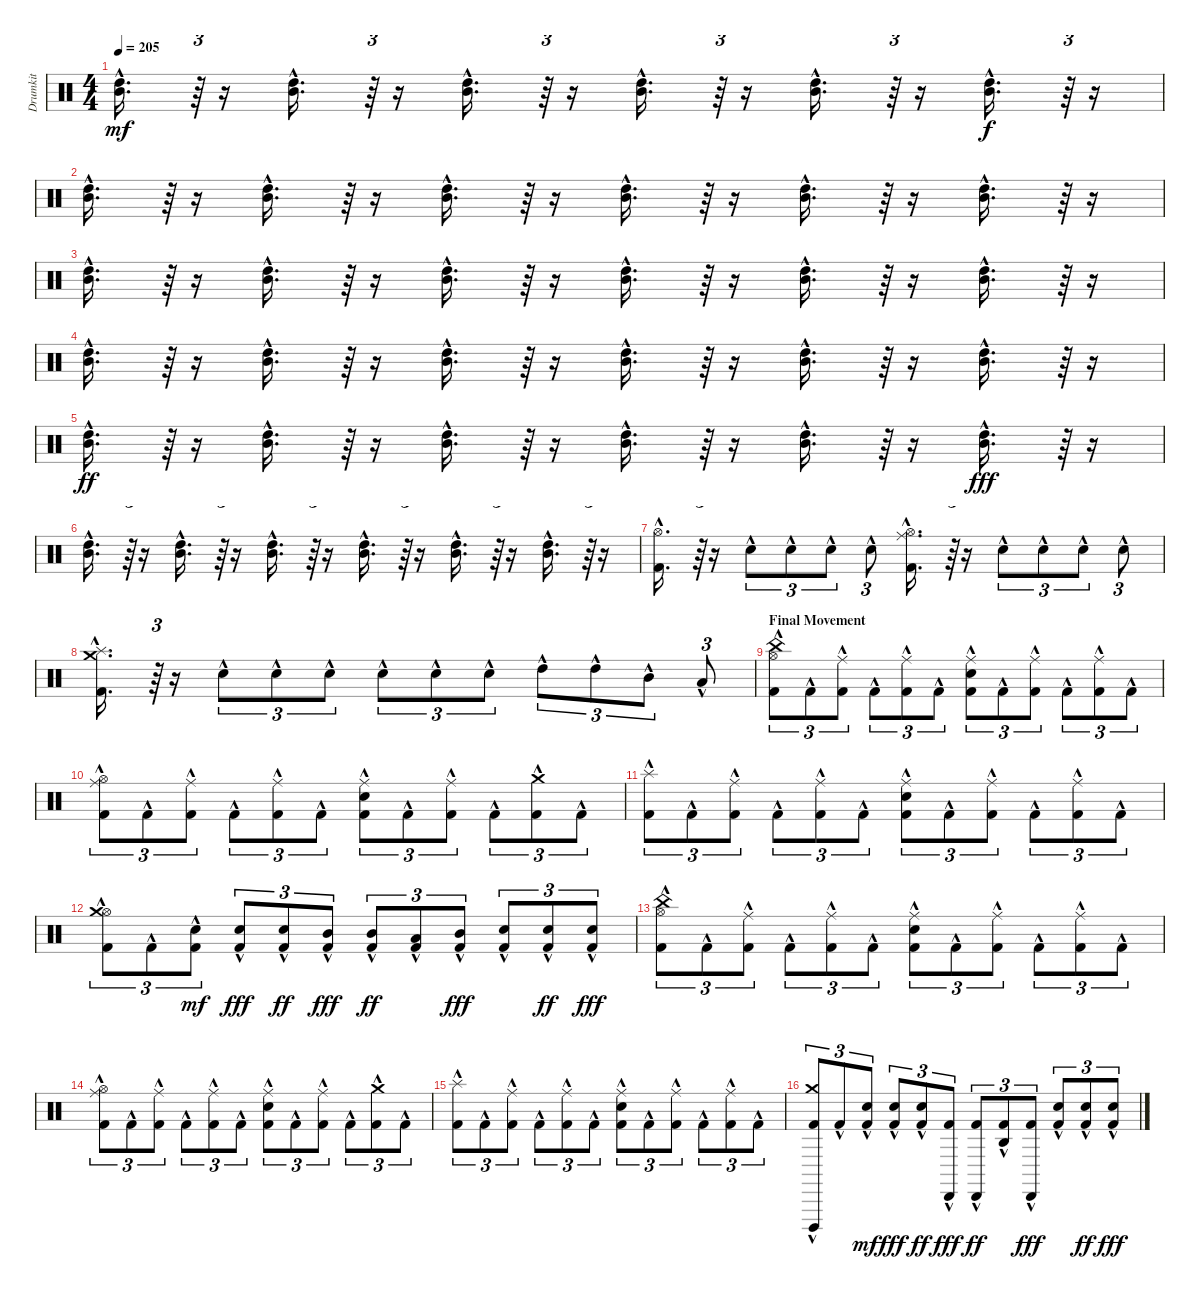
\track ("Drumkit" "Drumkit") {instrument percussion}
\staff {score}
\articulation defaults
\ts (4 4)
\tempo 205
\clef neutral
\ks c
("Mid Tom (hit)"{hac} "High Tom (hit)"{hac}).16{d dy mf} r.64{tu (3 2)} r.16 ("Mid Tom (hit)"{hac} "High Tom (hit)"{hac}).16{d} r.64{tu (3 2)} r.16 ("Mid Tom (hit)"{hac} "High Tom (hit)"{hac}).16{d} r.64{tu (3 2)} r.16 ("Mid Tom (hit)"{hac} "High Tom (hit)"{hac}).16{d} r.64{tu (3 2)} r.16 ("Mid Tom (hit)"{hac} "High Tom (hit)"{hac}).16{d} r.64{tu (3 2)} r.16 ("Mid Tom (hit)"{hac} "High Tom (hit)"{hac}).16{d dy f} r.64{tu (3 2)} r.16 |
("Mid Tom (hit)"{hac} "High Tom (hit)"{hac}).16{d} r.64{tu (3 2)} r.16 ("Mid Tom (hit)"{hac} "High Tom (hit)"{hac}).16{d} r.64{tu (3 2)} r.16 ("Mid Tom (hit)"{hac} "High Tom (hit)"{hac}).16{d} r.64{tu (3 2)} r.16 ("Mid Tom (hit)"{hac} "High Tom (hit)"{hac}).16{d} r.64{tu (3 2)} r.16 ("Mid Tom (hit)"{hac} "High Tom (hit)"{hac}).16{d} r.64{tu (3 2)} r.16 ("Mid Tom (hit)"{hac} "High Tom (hit)"{hac}).16{d} r.64{tu (3 2)} r.16 |
("Mid Tom (hit)"{hac} "High Tom (hit)"{hac}).16{d} r.64{tu (3 2)} r.16 ("Mid Tom (hit)"{hac} "High Tom (hit)"{hac}).16{d} r.64{tu (3 2)} r.16 ("Mid Tom (hit)"{hac} "High Tom (hit)"{hac}).16{d} r.64{tu (3 2)} r.16 ("Mid Tom (hit)"{hac} "High Tom (hit)"{hac}).16{d} r.64{tu (3 2)} r.16 ("Mid Tom (hit)"{hac} "High Tom (hit)"{hac}).16{d} r.64{tu (3 2)} r.16 ("Mid Tom (hit)"{hac} "High Tom (hit)"{hac}).16{d} r.64{tu (3 2)} r.16 |
("Mid Tom (hit)"{hac} "High Tom (hit)"{hac}).16{d} r.64{tu (3 2)} r.16 ("Mid Tom (hit)"{hac} "High Tom (hit)"{hac}).16{d} r.64{tu (3 2)} r.16 ("Mid Tom (hit)"{hac} "High Tom (hit)"{hac}).16{d} r.64{tu (3 2)} r.16 ("Mid Tom (hit)"{hac} "High Tom (hit)"{hac}).16{d} r.64{tu (3 2)} r.16 ("Mid Tom (hit)"{hac} "High Tom (hit)"{hac}).16{d} r.64{tu (3 2)} r.16 ("Mid Tom (hit)"{hac} "High Tom (hit)"{hac}).16{d} r.64{tu (3 2)} r.16 |
("Mid Tom (hit)"{hac} "High Tom (hit)"{hac}).16{d dy ff} r.64{tu (3 2)} r.16 ("Mid Tom (hit)"{hac} "High Tom (hit)"{hac}).16{d} r.64{tu (3 2)} r.16 ("Mid Tom (hit)"{hac} "High Tom (hit)"{hac}).16{d} r.64{tu (3 2)} r.16 ("Mid Tom (hit)"{hac} "High Tom (hit)"{hac}).16{d} r.64{tu (3 2)} r.16 ("Mid Tom (hit)"{hac} "High Tom (hit)"{hac}).16{d} r.64{tu (3 2)} r.16 ("Mid Tom (hit)"{hac} "High Tom (hit)"{hac}).16{d dy fff} r.64{tu (3 2)} r.16 |
("Mid Tom (hit)"{hac} "High Tom (hit)"{hac}).16{d} r.64{tu (3 2)} r.16 ("Mid Tom (hit)"{hac} "High Tom (hit)"{hac}).16{d} r.64{tu (3 2)} r.16 ("Mid Tom (hit)"{hac} "High Tom (hit)"{hac}).16{d} r.64{tu (3 2)} r.16 ("Mid Tom (hit)"{hac} "High Tom (hit)"{hac}).16{d} r.64{tu (3 2)} r.16 ("Mid Tom (hit)"{hac} "High Tom (hit)"{hac}).16{d} r.64{tu (3 2)} r.16 ("Mid Tom (hit)"{hac} "High Tom (hit)"{hac}).16{d} r.64{tu (3 2)} r.16 |
("Kick (hit) 2"{hac} "Hi-Hat (open)"{hac}).16{d} r.64{tu (3 2)} r.16 "Snare (hit) 2"{hac}.8{tu (3 2)} "Snare (hit) 2"{hac}.8{tu (3 2)} "Snare (hit) 2"{hac}.8{tu (3 2)} "Snare (hit) 2"{hac}.8{tu (3 2)} ("Kick (hit) 2"{hac} "Hi-Hat (open)"{hac} "Ride (middle)"{hac}).16{d} r.64{tu (3 2)} r.16 "Snare (hit) 2"{hac}.8{tu (3 2)} "Snare (hit) 2"{hac}.8{tu (3 2)} "Snare (hit) 2"{hac}.8{tu (3 2)} "Snare (hit) 2"{hac}.8{tu (3 2)} |
("Kick (hit) 2"{hac} "Splash (hit)"{hac} "Crash medium (hit)"{hac}).16{d} r.64{tu (3 2)} r.16 "Snare (hit) 2"{hac}.8{tu (3 2)} "Snare (hit) 2"{hac}.8{tu (3 2)} "Snare (hit) 2"{hac}.8{tu (3 2)} "Snare (hit) 2"{hac}.8{tu (3 2)} "Snare (hit) 2"{hac}.8{tu (3 2)} "Snare (hit) 2"{hac}.8{tu (3 2)} "High Tom (hit)"{hac}.8{tu (3 2)} "High Tom (hit)"{hac}.8{tu (3 2)} "Mid Tom (hit)"{hac}.8{tu (3 2)} "Low Tom (hit)"{hac}.8{tu (3 2)} |
\section ("" "Final Movement")
("Kick (hit) 2"{hac} "Hi-Hat (open)"{hac} "China (hit)"{hac}).8{tu (3 2)} "Kick (hit) 2"{hac}.8{tu (3 2)} ("Kick (hit) 2"{hac} "Ride (middle)"{hac}).8{tu (3 2)} "Kick (hit) 2"{hac}.8{tu (3 2)} ("Kick (hit) 2"{hac} "Ride (middle)"{hac}).8{tu (3 2)} "Kick (hit) 2"{hac}.8{tu (3 2)} ("Kick (hit) 2"{hac} "Snare (hit) 2"{hac} "Ride (middle)"{hac}).8{tu (3 2)} "Kick (hit) 2"{hac}.8{tu (3 2)} ("Kick (hit) 2"{hac} "Ride (middle)"{hac}).8{tu (3 2)} "Kick (hit) 2"{hac}.8{tu (3 2)} ("Kick (hit) 2"{hac} "Ride (middle)"{hac}).8{tu (3 2)} "Kick (hit) 2"{hac}.8{tu (3 2)} |
("Kick (hit) 2"{hac} "Hi-Hat (open)"{hac} "Ride (middle)"{hac}).8{tu (3 2)} "Kick (hit) 2"{hac}.8{tu (3 2)} ("Kick (hit) 2"{hac} "Ride (middle)"{hac}).8{tu (3 2)} "Kick (hit) 2"{hac}.8{tu (3 2)} ("Kick (hit) 2"{hac} "Ride (middle)"{hac}).8{tu (3 2)} "Kick (hit) 2"{hac}.8{tu (3 2)} ("Kick (hit) 2"{hac} "Snare (hit) 2"{hac} "Ride (middle)"{hac}).8{tu (3 2)} "Kick (hit) 2"{hac}.8{tu (3 2)} ("Kick (hit) 2"{hac} "Ride (middle)"{hac}).8{tu (3 2)} "Kick (hit) 2"{hac}.8{tu (3 2)} ("Kick (hit) 2"{hac} "Crash medium (hit)"{hac}).8{tu (3 2)} "Kick (hit) 2"{hac}.8{tu (3 2)} |
("Kick (hit) 2"{hac} "Splash (hit)"{hac}).8{tu (3 2)} "Kick (hit) 2"{hac}.8{tu (3 2)} ("Kick (hit) 2"{hac} "Ride (middle)"{hac}).8{tu (3 2)} "Kick (hit) 2"{hac}.8{tu (3 2)} ("Kick (hit) 2"{hac} "Ride (middle)"{hac}).8{tu (3 2)} "Kick (hit) 2"{hac}.8{tu (3 2)} ("Kick (hit) 2"{hac} "Snare (hit) 2"{hac} "Ride (middle)"{hac}).8{tu (3 2)} "Kick (hit) 2"{hac}.8{tu (3 2)} ("Kick (hit) 2"{hac} "Ride (middle)"{hac}).8{tu (3 2)} "Kick (hit) 2"{hac}.8{tu (3 2)} ("Kick (hit) 2"{hac} "Ride (middle)"{hac}).8{tu (3 2)} "Kick (hit) 2"{hac}.8{tu (3 2)} |
("Kick (hit) 2"{hac} "Hi-Hat (open)"{hac} "Crash medium (hit)"{hac}).8{tu (3 2)} "Kick (hit) 2"{hac}.8{tu (3 2)} ("Kick (hit) 2"{hac} "Snare (hit) 2"{hac}).8{tu (3 2) dy mf} ("Kick (hit) 2"{hac} "Snare (hit) 2"{hac}).8{tu (3 2) dy fff} ("Kick (hit) 2"{hac} "Snare (hit) 2"{hac}).8{tu (3 2) dy ff} ("Kick (hit) 2"{hac} "Mid Tom (hit)"{hac}).8{tu (3 2) dy fff} ("Kick (hit) 2"{hac} "Mid Tom (hit)"{hac}).8{tu (3 2) dy ff} ("Kick (hit) 2"{hac} "Low Tom (hit)"{hac}).8{tu (3 2)} ("Kick (hit) 2"{hac} "Mid Tom (hit)"{hac}).8{tu (3 2) dy fff} ("Kick (hit) 2"{hac} "Snare (hit) 2"{hac}).8{tu (3 2)} ("Kick (hit) 2"{hac} "Snare (hit) 2"{hac}).8{tu (3 2) dy ff} ("Kick (hit) 2"{hac} "Snare (hit) 2"{hac}).8{tu (3 2) dy fff} |
("Kick (hit) 2"{hac} "Hi-Hat (open)"{hac} "China (hit)"{hac}).8{tu (3 2)} "Kick (hit) 2"{hac}.8{tu (3 2)} ("Kick (hit) 2"{hac} "Ride (middle)"{hac}).8{tu (3 2)} "Kick (hit) 2"{hac}.8{tu (3 2)} ("Kick (hit) 2"{hac} "Ride (middle)"{hac}).8{tu (3 2)} "Kick (hit) 2"{hac}.8{tu (3 2)} ("Kick (hit) 2"{hac} "Snare (hit) 2"{hac} "Ride (middle)"{hac}).8{tu (3 2)} "Kick (hit) 2"{hac}.8{tu (3 2)} ("Kick (hit) 2"{hac} "Ride (middle)"{hac}).8{tu (3 2)} "Kick (hit) 2"{hac}.8{tu (3 2)} ("Kick (hit) 2"{hac} "Ride (middle)"{hac}).8{tu (3 2)} "Kick (hit) 2"{hac}.8{tu (3 2)} |
("Kick (hit) 2"{hac} "Hi-Hat (open)"{hac} "Ride (middle)"{hac}).8{tu (3 2)} "Kick (hit) 2"{hac}.8{tu (3 2)} ("Kick (hit) 2"{hac} "Ride (middle)"{hac}).8{tu (3 2)} "Kick (hit) 2"{hac}.8{tu (3 2)} ("Kick (hit) 2"{hac} "Ride (middle)"{hac}).8{tu (3 2)} "Kick (hit) 2"{hac}.8{tu (3 2)} ("Kick (hit) 2"{hac} "Snare (hit) 2"{hac} "Ride (middle)"{hac}).8{tu (3 2)} "Kick (hit) 2"{hac}.8{tu (3 2)} ("Kick (hit) 2"{hac} "Ride (middle)"{hac}).8{tu (3 2)} "Kick (hit) 2"{hac}.8{tu (3 2)} ("Kick (hit) 2"{hac} "Crash medium (hit)"{hac}).8{tu (3 2)} "Kick (hit) 2"{hac}.8{tu (3 2)} |
("Kick (hit) 2"{hac} "Splash (hit)"{hac}).8{tu (3 2)} "Kick (hit) 2"{hac}.8{tu (3 2)} ("Kick (hit) 2"{hac} "Ride (middle)"{hac}).8{tu (3 2)} "Kick (hit) 2"{hac}.8{tu (3 2)} ("Kick (hit) 2"{hac} "Ride (middle)"{hac}).8{tu (3 2)} "Kick (hit) 2"{hac}.8{tu (3 2)} ("Kick (hit) 2"{hac} "Snare (hit) 2"{hac} "Ride (middle)"{hac}).8{tu (3 2)} "Kick (hit) 2"{hac}.8{tu (3 2)} ("Kick (hit) 2"{hac} "Ride (middle)"{hac}).8{tu (3 2)} "Kick (hit) 2"{hac}.8{tu (3 2)} ("Kick (hit) 2"{hac} "Ride (middle)"{hac}).8{tu (3 2)} "Kick (hit) 2"{hac}.8{tu (3 2)} |
("Kick (hit) 2"{hac} "Crash medium (hit)"{hac} "Cuica (open)"{hac}).8{tu (3 2)} "Kick (hit) 2"{hac}.8{tu (3 2)} ("Kick (hit) 2"{hac} "Hand Clap (hit)"{hac}).8{tu (3 2) dy mf} ("Kick (hit) 2"{hac} "Hand Clap (hit)"{hac}).8{tu (3 2) dy fff} ("Kick (hit) 2"{hac} "Hand Clap (hit)"{hac}).8{tu (3 2) dy ff} ("Kick (hit) 2"{hac} "Cabasa (hit)"{hac}).8{tu (3 2) dy fff} ("Kick (hit) 2"{hac} "Cabasa (hit)"{hac}).8{tu (3 2) dy ff} ("Kick (hit) 2"{hac} "Agogo high (hit)"{hac}).8{tu (3 2)} ("Kick (hit) 2"{hac} "Cabasa (hit)"{hac}).8{tu (3 2) dy fff} ("Kick (hit) 2"{hac} "Hand Clap (hit)"{hac}).8{tu (3 2)} ("Kick (hit) 2"{hac} "Hand Clap (hit)"{hac}).8{tu (3 2) dy ff} ("Kick (hit) 2"{hac} "Hand Clap (hit)"{hac}).8{tu (3 2) dy fff}
